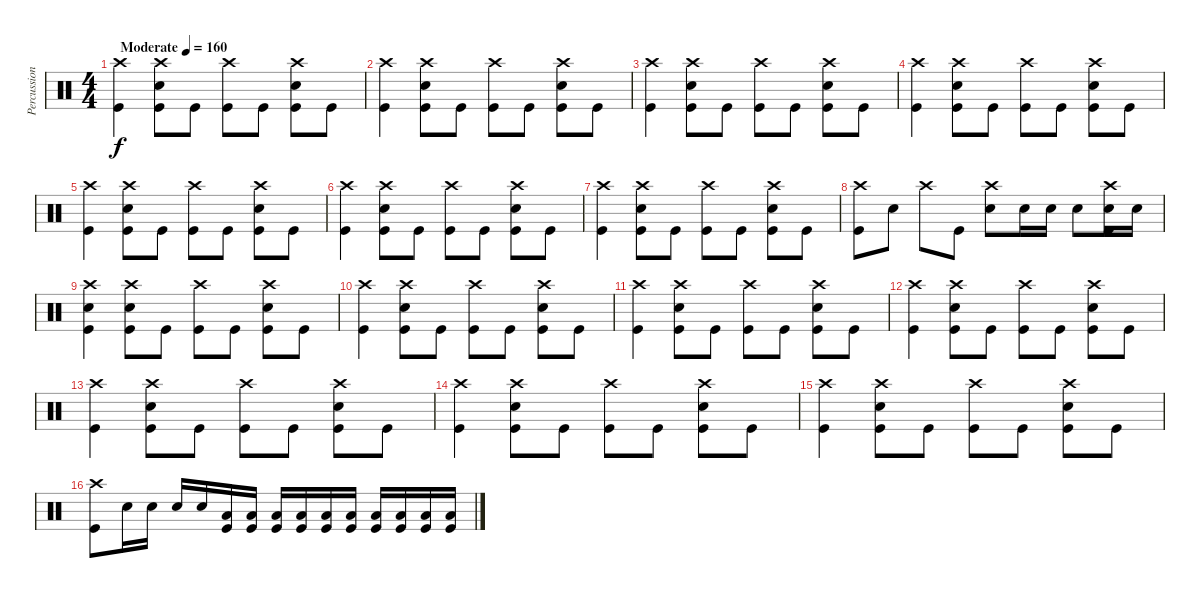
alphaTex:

\track ("Percussions" "Percussion") {instrument percussion}
\staff {score}
\articulation defaults
\ts (4 4)
\tempo (160 "Moderate")
\clef neutral
\ks c
("Crash high (hit)" "Kick (hit)").4{dy f} ("Crash high (hit)" "Snare (hit) 2" "Kick (hit)").8 "Kick (hit)".8 ("Crash high (hit)" "Kick (hit)").8 "Kick (hit)".8 ("Crash high (hit)" "Snare (hit) 2" "Kick (hit)").8 "Kick (hit)".8 |
("Crash high (hit)" "Kick (hit)").4 ("Crash high (hit)" "Snare (hit) 2" "Kick (hit)").8 "Kick (hit)".8 ("Crash high (hit)" "Kick (hit)").8 "Kick (hit)".8 ("Crash high (hit)" "Snare (hit) 2" "Kick (hit)").8 "Kick (hit)".8 |
("Crash high (hit)" "Kick (hit)").4 ("Crash high (hit)" "Snare (hit) 2" "Kick (hit)").8 "Kick (hit)".8 ("Crash high (hit)" "Kick (hit)").8 "Kick (hit)".8 ("Crash high (hit)" "Snare (hit) 2" "Kick (hit)").8 "Kick (hit)".8 |
("Crash high (hit)" "Kick (hit)").4 ("Crash high (hit)" "Snare (hit) 2" "Kick (hit)").8 "Kick (hit)".8 ("Crash high (hit)" "Kick (hit)").8 "Kick (hit)".8 ("Crash high (hit)" "Snare (hit) 2" "Kick (hit)").8 "Kick (hit)".8 |
("Crash high (hit)" "Kick (hit)").4 ("Crash high (hit)" "Snare (hit) 2" "Kick (hit)").8 "Kick (hit)".8 ("Crash high (hit)" "Kick (hit)").8 "Kick (hit)".8 ("Crash high (hit)" "Snare (hit) 2" "Kick (hit)").8 "Kick (hit)".8 |
("Crash high (hit)" "Kick (hit)").4 ("Crash high (hit)" "Snare (hit) 2" "Kick (hit)").8 "Kick (hit)".8 ("Crash high (hit)" "Kick (hit)").8 "Kick (hit)".8 ("Crash high (hit)" "Snare (hit) 2" "Kick (hit)").8 "Kick (hit)".8 |
("Crash high (hit)" "Kick (hit)").4 ("Crash high (hit)" "Snare (hit) 2" "Kick (hit)").8 "Kick (hit)".8 ("Crash high (hit)" "Kick (hit)").8 "Kick (hit)".8 ("Crash high (hit)" "Snare (hit) 2" "Kick (hit)").8 "Kick (hit)".8 |
("Crash high (hit)" "Kick (hit)").8 "Snare (hit) 2".8 "Crash high (hit)".8 "Kick (hit)".8 ("Crash high (hit)" "Snare (hit) 2").8 "Snare (hit) 2".16 "Snare (hit) 2".16 "Snare (hit) 2".8 ("Crash high (hit)" "Snare (hit) 2" "Kick (hit)").16 "Snare (hit) 2".16 |
("Crash high (hit)" "Snare (hit) 2" "Kick (hit)").4 ("Crash high (hit)" "Snare (hit) 2" "Kick (hit)").8 "Kick (hit)".8 ("Crash high (hit)" "Kick (hit)").8 "Kick (hit)".8 ("Crash high (hit)" "Snare (hit) 2" "Kick (hit)").8 "Kick (hit)".8 |
("Crash high (hit)" "Kick (hit)").4 ("Crash high (hit)" "Snare (hit) 2" "Kick (hit)").8 "Kick (hit)".8 ("Crash high (hit)" "Kick (hit)").8 "Kick (hit)".8 ("Crash high (hit)" "Snare (hit) 2" "Kick (hit)").8 "Kick (hit)".8 |
("Crash high (hit)" "Kick (hit)").4 ("Crash high (hit)" "Snare (hit) 2" "Kick (hit)").8 "Kick (hit)".8 ("Crash high (hit)" "Kick (hit)").8 "Kick (hit)".8 ("Crash high (hit)" "Snare (hit) 2" "Kick (hit)").8 "Kick (hit)".8 |
("Crash high (hit)" "Kick (hit)").4 ("Crash high (hit)" "Snare (hit) 2" "Kick (hit)").8 "Kick (hit)".8 ("Crash high (hit)" "Kick (hit)").8 "Kick (hit)".8 ("Crash high (hit)" "Snare (hit) 2" "Kick (hit)").8 "Kick (hit)".8 |
("Crash high (hit)" "Kick (hit)").4 ("Crash high (hit)" "Snare (hit) 2" "Kick (hit)").8 "Kick (hit)".8 ("Crash high (hit)" "Kick (hit)").8 "Kick (hit)".8 ("Crash high (hit)" "Snare (hit) 2" "Kick (hit)").8 "Kick (hit)".8 |
("Crash high (hit)" "Kick (hit)").4 ("Crash high (hit)" "Snare (hit) 2" "Kick (hit)").8 "Kick (hit)".8 ("Crash high (hit)" "Kick (hit)").8 "Kick (hit)".8 ("Crash high (hit)" "Snare (hit) 2" "Kick (hit)").8 "Kick (hit)".8 |
("Crash high (hit)" "Kick (hit)").4 ("Crash high (hit)" "Snare (hit) 2" "Kick (hit)").8 "Kick (hit)".8 ("Crash high (hit)" "Kick (hit)").8 "Kick (hit)".8 ("Crash high (hit)" "Snare (hit) 2" "Kick (hit)").8 "Kick (hit)".8 |
("Crash high (hit)" "Kick (hit)").8 "Snare (hit) 2".16 "Snare (hit) 2".16 "Snare (hit) 2".16 "Snare (hit) 2".16 ("Low Tom (hit)" "Kick (hit)").16 ("Low Tom (hit)" "Kick (hit)").16 ("Low Tom (hit)" "Kick (hit)").16 ("Low Tom (hit)" "Kick (hit)").16 ("Low Tom (hit)" "Kick (hit)").16 ("Low Tom (hit)" "Kick (hit)").16 ("Low Tom (hit)" "Kick (hit)").16 ("Low Tom (hit)" "Kick (hit)").16 ("Low Tom (hit)" "Kick (hit)").16 ("Low Tom (hit)" "Kick (hit)").16
